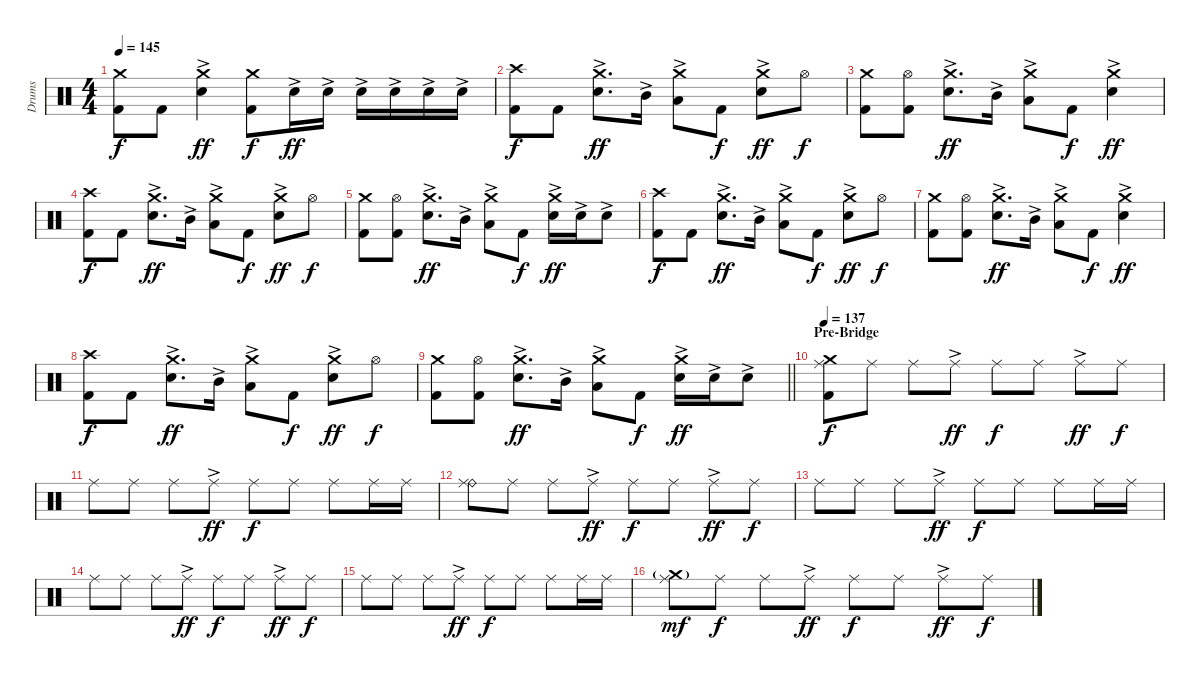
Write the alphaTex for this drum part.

\track ("Drums" "Drums") {instrument percussion}
\staff {score}
\articulation defaults
\ts (4 4)
\tempo 145
\clef neutral
\ks c
("Crash medium (hit)" "Kick (hit) 2").8{dy f} "Kick (hit) 2".8 ("Crash medium (hit)" "Electric Snare (hit)"{ac}).4{dy ff} ("Crash medium (hit)" "Kick (hit) 2").8{dy f} "Electric Snare (hit)"{ac}.16{dy ff} "Electric Snare (hit)"{ac}.16 "Electric Snare (hit)"{ac}.16 "Electric Snare (hit)"{ac}.16 "Electric Snare (hit)"{ac}.16 "Electric Snare (hit)"{ac}.16 |
("Crash high (hit)" "Kick (hit) 2").8{dy f} "Kick (hit) 2".8 ("Crash medium (hit)" "Electric Snare (hit)"{ac}).8{d dy ff} "Mid Tom (hit)"{ac}.16 ("Crash medium (hit)" "Low Tom (hit)"{ac}).8 "Kick (hit) 2".8{dy f} ("Crash medium (hit)" "Electric Snare (hit)"{ac}).8{dy ff} "Hi-Hat (open)".8{dy f} |
("Crash medium (hit)" "Kick (hit) 2").8 ("Hi-Hat (open)" "Kick (hit) 2").8 ("Crash medium (hit)" "Electric Snare (hit)"{ac}).8{d dy ff} "Mid Tom (hit)"{ac}.16 ("Crash medium (hit)" "Low Tom (hit)"{ac}).8 "Kick (hit) 2".8{dy f} ("Crash medium (hit)" "Electric Snare (hit)"{ac}).4{dy ff} |
("Crash high (hit)" "Kick (hit) 2").8{dy f} "Kick (hit) 2".8 ("Crash medium (hit)" "Electric Snare (hit)"{ac}).8{d dy ff} "Mid Tom (hit)"{ac}.16 ("Crash medium (hit)" "Low Tom (hit)"{ac}).8 "Kick (hit) 2".8{dy f} ("Crash medium (hit)" "Electric Snare (hit)"{ac}).8{dy ff} "Hi-Hat (open)".8{dy f} |
("Crash medium (hit)" "Kick (hit) 2").8 ("Hi-Hat (open)" "Kick (hit) 2").8 ("Crash medium (hit)" "Electric Snare (hit)"{ac}).8{d dy ff} "Mid Tom (hit)"{ac}.16 ("Crash medium (hit)" "Low Tom (hit)"{ac}).8 "Kick (hit) 2".8{dy f} ("Crash medium (hit)" "Electric Snare (hit)"{ac}).16{dy ff} "Electric Snare (hit)"{ac}.16 "Electric Snare (hit)"{ac}.8 |
("Crash high (hit)" "Kick (hit) 2").8{dy f} "Kick (hit) 2".8 ("Crash medium (hit)" "Electric Snare (hit)"{ac}).8{d dy ff} "Mid Tom (hit)"{ac}.16 ("Crash medium (hit)" "Low Tom (hit)"{ac}).8 "Kick (hit) 2".8{dy f} ("Crash medium (hit)" "Electric Snare (hit)"{ac}).8{dy ff} "Hi-Hat (open)".8{dy f} |
("Crash medium (hit)" "Kick (hit) 2").8 ("Hi-Hat (open)" "Kick (hit) 2").8 ("Crash medium (hit)" "Electric Snare (hit)"{ac}).8{d dy ff} "Mid Tom (hit)"{ac}.16 ("Crash medium (hit)" "Low Tom (hit)"{ac}).8 "Kick (hit) 2".8{dy f} ("Crash medium (hit)" "Electric Snare (hit)"{ac}).4{dy ff} |
("Crash high (hit)" "Kick (hit) 2").8{dy f} "Kick (hit) 2".8 ("Crash medium (hit)" "Electric Snare (hit)"{ac}).8{d dy ff} "Mid Tom (hit)"{ac}.16 ("Crash medium (hit)" "Low Tom (hit)"{ac}).8 "Kick (hit) 2".8{dy f} ("Crash medium (hit)" "Electric Snare (hit)"{ac}).8{dy ff} "Hi-Hat (open)".8{dy f} |
\barLineRight lightlight
("Crash medium (hit)" "Kick (hit) 2").8 ("Hi-Hat (open)" "Kick (hit) 2").8 ("Crash medium (hit)" "Electric Snare (hit)"{ac}).8{d dy ff} "Mid Tom (hit)"{ac}.16 ("Crash medium (hit)" "Low Tom (hit)"{ac}).8 "Kick (hit) 2".8{dy f} ("Crash medium (hit)" "Electric Snare (hit)"{ac}).16{dy ff} "Electric Snare (hit)"{ac}.16 "Electric Snare (hit)"{ac}.8 |
\section ("" "Pre-Bridge")
\tempo 137
("Crash medium (hit)" "Ride (middle)" "Kick (hit) 2").8{dy f} "Ride (middle)".8 "Ride (middle)".8 "Ride (middle)"{ac}.8{dy ff} "Ride (middle)".8{dy f} "Ride (middle)".8 "Ride (middle)"{ac}.8{dy ff} "Ride (middle)".8{dy f} |
"Ride (middle)".8 "Ride (middle)".8 "Ride (middle)".8 "Ride (middle)"{ac}.8{dy ff} "Ride (middle)".8{dy f} "Ride (middle)".8 "Ride (middle)".8 "Ride (middle)".16 "Ride (middle)".16 |
("Ride (bell)" "Ride (middle)").8 "Ride (middle)".8 "Ride (middle)".8 "Ride (middle)"{ac}.8{dy ff} "Ride (middle)".8{dy f} "Ride (middle)".8 "Ride (middle)"{ac}.8{dy ff} "Ride (middle)".8{dy f} |
"Ride (middle)".8 "Ride (middle)".8 "Ride (middle)".8 "Ride (middle)"{ac}.8{dy ff} "Ride (middle)".8{dy f} "Ride (middle)".8 "Ride (middle)".8 "Ride (middle)".16 "Ride (middle)".16 |
"Ride (middle)".8 "Ride (middle)".8 "Ride (middle)".8 "Ride (middle)"{ac}.8{dy ff} "Ride (middle)".8{dy f} "Ride (middle)".8 "Ride (middle)"{ac}.8{dy ff} "Ride (middle)".8{dy f} |
"Ride (middle)".8 "Ride (middle)".8 "Ride (middle)".8 "Ride (middle)"{ac}.8{dy ff} "Ride (middle)".8{dy f} "Ride (middle)".8 "Ride (middle)".8 "Ride (middle)".16 "Ride (middle)".16 |
("Crash medium (hit)"{g} "Ride (middle)").8{dy mf} "Ride (middle)".8{dy f} "Ride (middle)".8 "Ride (middle)"{ac}.8{dy ff} "Ride (middle)".8{dy f} "Ride (middle)".8 "Ride (middle)"{ac}.8{dy ff} "Ride (middle)".8{dy f}
